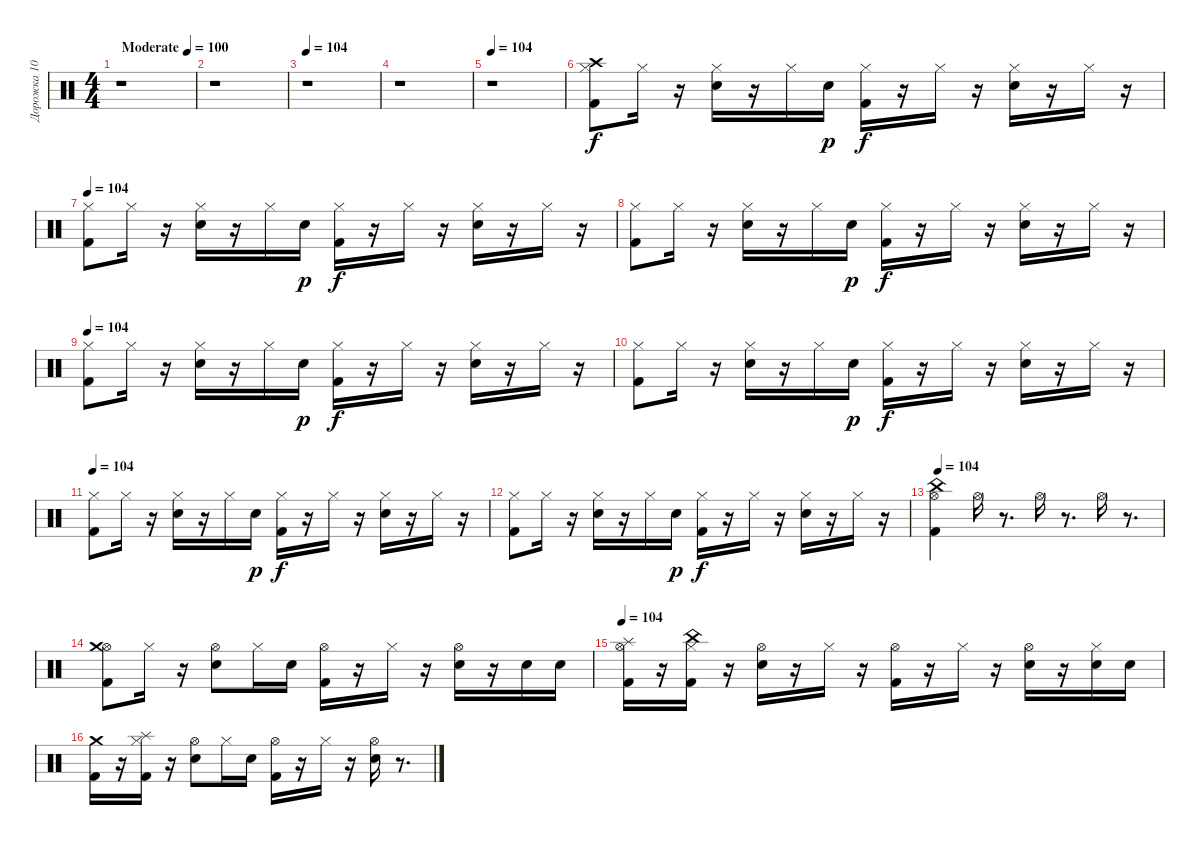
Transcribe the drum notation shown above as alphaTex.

\track ("Дорожка 10" "Дорожка 10") {instrument percussion}
\staff {score}
\articulation defaults
\ts (4 4)
\tempo (100 "Moderate")
\clef neutral
\ks c
r.1{dy f} |
r.1 |
\tempo 104
r.1 |
r.1 |
\tempo 104
r.1 |
("Hi-Hat (closed)" "Crash high (hit)" "Kick (hit) 2").8 "Hi-Hat (closed)".16 r.16 ("Hi-Hat (closed)" "Electric Snare (hit)").16 r.16 "Hi-Hat (closed)".16 "Electric Snare (hit)".16{dy p} ("Hi-Hat (closed)" "Kick (hit) 2").16{dy f} r.16 "Hi-Hat (closed)".16 r.16 ("Hi-Hat (closed)" "Electric Snare (hit)").16 r.16 "Hi-Hat (closed)".16 r.16 |
\tempo 104
("Hi-Hat (closed)" "Kick (hit) 2").8 "Hi-Hat (closed)".16 r.16 ("Hi-Hat (closed)" "Electric Snare (hit)").16 r.16 "Hi-Hat (closed)".16 "Electric Snare (hit)".16{dy p} ("Hi-Hat (closed)" "Kick (hit) 2").16{dy f} r.16 "Hi-Hat (closed)".16 r.16 ("Hi-Hat (closed)" "Electric Snare (hit)").16 r.16 "Hi-Hat (closed)".16 r.16 |
("Hi-Hat (closed)" "Kick (hit) 2").8 "Hi-Hat (closed)".16 r.16 ("Hi-Hat (closed)" "Electric Snare (hit)").16 r.16 "Hi-Hat (closed)".16 "Electric Snare (hit)".16{dy p} ("Hi-Hat (closed)" "Kick (hit) 2").16{dy f} r.16 "Hi-Hat (closed)".16 r.16 ("Hi-Hat (closed)" "Electric Snare (hit)").16 r.16 "Hi-Hat (closed)".16 r.16 |
\tempo 104
("Hi-Hat (closed)" "Kick (hit) 2").8 "Hi-Hat (closed)".16 r.16 ("Hi-Hat (closed)" "Electric Snare (hit)").16 r.16 "Hi-Hat (closed)".16 "Electric Snare (hit)".16{dy p} ("Hi-Hat (closed)" "Kick (hit) 2").16{dy f} r.16 "Hi-Hat (closed)".16 r.16 ("Hi-Hat (closed)" "Electric Snare (hit)").16 r.16 "Hi-Hat (closed)".16 r.16 |
("Hi-Hat (closed)" "Kick (hit) 2").8 "Hi-Hat (closed)".16 r.16 ("Hi-Hat (closed)" "Electric Snare (hit)").16 r.16 "Hi-Hat (closed)".16 "Electric Snare (hit)".16{dy p} ("Hi-Hat (closed)" "Kick (hit) 2").16{dy f} r.16 "Hi-Hat (closed)".16 r.16 ("Hi-Hat (closed)" "Electric Snare (hit)").16 r.16 "Hi-Hat (closed)".16 r.16 |
\tempo 104
("Hi-Hat (closed)" "Kick (hit) 2").8 "Hi-Hat (closed)".16 r.16 ("Hi-Hat (closed)" "Electric Snare (hit)").16 r.16 "Hi-Hat (closed)".16 "Electric Snare (hit)".16{dy p} ("Hi-Hat (closed)" "Kick (hit) 2").16{dy f} r.16 "Hi-Hat (closed)".16 r.16 ("Hi-Hat (closed)" "Electric Snare (hit)").16 r.16 "Hi-Hat (closed)".16 r.16 |
("Hi-Hat (closed)" "Kick (hit) 2").8 "Hi-Hat (closed)".16 r.16 ("Hi-Hat (closed)" "Electric Snare (hit)").16 r.16 "Hi-Hat (closed)".16 "Electric Snare (hit)".16{dy p} ("Hi-Hat (closed)" "Kick (hit) 2").16{dy f} r.16 "Hi-Hat (closed)".16 r.16 ("Hi-Hat (closed)" "Electric Snare (hit)").16 r.16 "Hi-Hat (closed)".16 r.16 |
\tempo 104
("China (hit)" "Hi-Hat (open)" "Kick (hit) 2").4 "Hi-Hat (open)".16 r.8{d} "Hi-Hat (open)".16 r.8{d} "Hi-Hat (open)".16 r.8{d} |
("Hi-Hat (open)" "Crash medium (hit)" "Kick (hit) 2").8 "Hi-Hat (closed)".16 r.16 ("Hi-Hat (open)" "Electric Snare (hit)").8 "Hi-Hat (closed)".16 "Electric Snare (hit)".16 ("Hi-Hat (open)" "Kick (hit) 2").16 r.16 "Hi-Hat (closed)".16 r.16 ("Hi-Hat (open)" "Electric Snare (hit)").16 r.16 "Electric Snare (hit)".16 "Electric Snare (hit)".16 |
\tempo 104
("Splash (hit)" "Hi-Hat (open)" "Kick (hit) 2").16 r.16 ("Kick (hit) 2" "China (hit)" "Hi-Hat (closed)").16 r.16 ("Electric Snare (hit)" "Hi-Hat (open)").16 r.16 "Hi-Hat (closed)".16 r.16 ("Kick (hit) 2" "Hi-Hat (open)").16 r.16 "Hi-Hat (closed)".16 r.16 ("Electric Snare (hit)" "Hi-Hat (open)").16 r.16 ("Electric Snare (hit)" "Hi-Hat (closed)").16 "Electric Snare (hit)".16 |
("Kick (hit) 2" "Crash medium (hit)").16 r.16 ("Kick (hit) 2" "Splash (hit)" "Hi-Hat (closed)").16 r.16 ("Hi-Hat (open)" "Electric Snare (hit)").8 "Hi-Hat (closed)".16 "Electric Snare (hit)".16 ("Hi-Hat (open)" "Kick (hit) 2").16 r.16 "Hi-Hat (closed)".16 r.16 ("Hi-Hat (open)" "Electric Snare (hit)").16 r.8{d}
